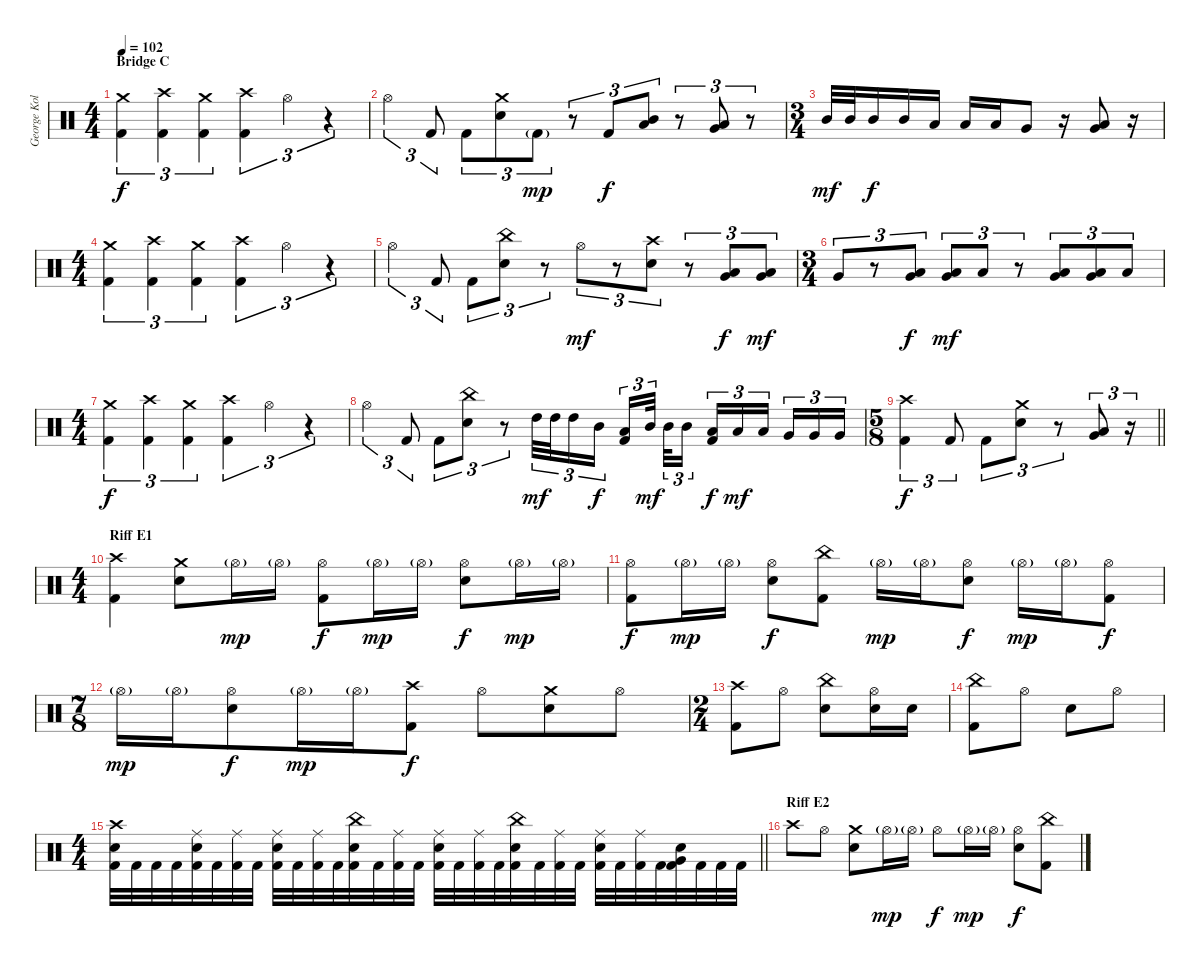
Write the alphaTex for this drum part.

\track ("George Kollias" "George Kol") {instrument percussion}
\staff {score}
\articulation defaults
\ts (4 4)
\section ("" "Bridge C")
\tempo 102
\clef neutral
\ks c
("Crash medium (hit)" "Kick (hit) 2").4{tu (3 2) dy f} ("Crash high (hit)" "Kick (hit) 2").4{tu (3 2)} ("Crash medium (hit)" "Kick (hit) 2").4{tu (3 2)} ("Crash high (hit)" "Kick (hit) 2").4{tu (3 2)} "Hi-Hat (open)".4{tu (3 2)} r.4{tu (3 2)} |
"Hi-Hat (open)".4{tu (3 2)} "Kick (hit) 2".8{tu (3 2)} "Kick (hit) 2".8{tu (3 2)} ("Crash medium (hit)" "Electric Snare (hit)").8{tu (3 2)} "Kick (hit) 2"{g}.8{tu (3 2) dy mp} r.8{tu (3 2)} "Kick (hit) 2".8{tu (3 2) dy f} ("Mid Tom (hit)" "Low Tom (hit)").8{tu (3 2)} r.8{tu (3 2)} ("Low Tom (hit)" "Very Low Tom (hit)").8{tu (3 2)} r.8{tu (3 2)} |
\ts (3 4)
"Mid Tom (hit)".32{dy mf} "Mid Tom (hit)".32 "Mid Tom (hit)".16{dy f} "Mid Tom (hit)".16 "Low Tom (hit)".16 "Low Tom (hit)".16 "Low Tom (hit)".16 "Very Low Tom (hit)".8 r.16 ("Very Low Tom (hit)" "Low Floor Tom (hit)").8 r.16 |
\ts (4 4)
("Crash medium (hit)" "Kick (hit) 2").4{tu (3 2)} ("Crash high (hit)" "Kick (hit) 2").4{tu (3 2)} ("Crash medium (hit)" "Kick (hit) 2").4{tu (3 2)} ("Crash high (hit)" "Kick (hit) 2").4{tu (3 2)} "Hi-Hat (open)".4{tu (3 2)} r.4{tu (3 2)} |
"Hi-Hat (open)".4{tu (3 2)} "Kick (hit) 2".8{tu (3 2)} "Kick (hit) 2".8{tu (3 2)} ("China (hit)" "Electric Snare (hit)").8{tu (3 2)} r.8{tu (3 2)} "Hi-Hat (open)".8{tu (3 2) dy mf} r.8{tu (3 2)} ("Crash high (hit)" "Electric Snare (hit)").8{tu (3 2)} r.8{tu (3 2)} ("Low Tom (hit)" "Very Low Tom (hit)").8{tu (3 2) dy f} ("Low Tom (hit)" "Very Low Tom (hit)").8{tu (3 2) dy mf} |
\ts (3 4)
"Very Low Tom (hit)".8{tu (3 2)} r.8{tu (3 2)} ("Very Low Tom (hit)" "Low Floor Tom (hit)").8{tu (3 2) dy f} ("Very Low Tom (hit)" "Low Floor Tom (hit)").8{tu (3 2) dy mf} "Low Floor Tom (hit)".8{tu (3 2)} r.8{tu (3 2)} ("Very Low Tom (hit)" "Low Floor Tom (hit)").8{tu (3 2)} ("Very Low Tom (hit)" "Low Floor Tom (hit)").8{tu (3 2)} "Low Floor Tom (hit)".8{tu (3 2)} |
\ts (4 4)
("Crash medium (hit)" "Kick (hit) 2").4{tu (3 2) dy f} ("Crash high (hit)" "Kick (hit) 2").4{tu (3 2)} ("Crash medium (hit)" "Kick (hit) 2").4{tu (3 2)} ("Crash high (hit)" "Kick (hit) 2").4{tu (3 2)} "Hi-Hat (open)".4{tu (3 2)} r.4{tu (3 2)} |
"Hi-Hat (open)".4{tu (3 2)} "Kick (hit) 2".8{tu (3 2)} "Kick (hit) 2".8{tu (3 2)} ("China (hit)" "Electric Snare (hit)").8{tu (3 2)} r.8{tu (3 2)} "High Tom (hit)".32{tu (3 2) dy mf} "High Tom (hit)".32{tu (3 2)} "High Tom (hit)".16{tu (3 2)} "Mid Tom (hit)".16{tu (3 2) dy f beam splitsecondary} ("Low Tom (hit)" "Kick (hit) 2").16{tu (3 2)} "Mid Tom (hit)".32{tu (3 2) dy mf beam splitsecondary} "Mid Tom (hit)".32{tu (3 2)} "Mid Tom (hit)".16{tu (3 2)} ("Low Tom (hit)" "Kick (hit) 2").16{tu (3 2) dy f} "Low Tom (hit)".16{tu (3 2) dy mf} "Low Tom (hit)".16{tu (3 2) beam splitsecondary} "Very Low Tom (hit)".16{tu (3 2)} "Very Low Tom (hit)".16{tu (3 2)} "Very Low Tom (hit)".16{tu (3 2)} |
\ts (5 8)
\barLineRight lightlight
("Crash high (hit)" "Kick (hit) 2").4{tu (3 2) dy f} "Kick (hit) 2".8{tu (3 2)} "Kick (hit) 2".8{tu (3 2)} ("Crash medium (hit)" "Electric Snare (hit)").8{tu (3 2)} r.8{tu (3 2)} ("Very Low Tom (hit)" "Low Floor Tom (hit)").8{tu (3 2)} r.16{tu (3 2)} |
\ts (4 4)
\section ("" "Riff E1")
("Crash high (hit)" "Kick (hit) 2").4 ("Crash medium (hit)" "Electric Snare (hit)").8 "Hi-Hat (open)"{g}.16{dy mp} "Hi-Hat (open)"{g}.16 ("Hi-Hat (open)" "Kick (hit) 2").8{dy f} "Hi-Hat (open)"{g}.16{dy mp} "Hi-Hat (open)"{g}.16 ("Hi-Hat (open)" "Electric Snare (hit)").8{dy f} "Hi-Hat (open)"{g}.16{dy mp} "Hi-Hat (open)"{g}.16 |
("Hi-Hat (open)" "Kick (hit) 2").8{dy f} "Hi-Hat (open)"{g}.16{dy mp} "Hi-Hat (open)"{g}.16 ("Hi-Hat (open)" "Electric Snare (hit)").8{dy f} ("China (hit)" "Kick (hit) 2").8 "Hi-Hat (open)"{g}.16{dy mp} "Hi-Hat (open)"{g}.16 ("Hi-Hat (open)" "Electric Snare (hit)").8{dy f} "Hi-Hat (open)"{g}.16{dy mp} "Hi-Hat (open)"{g}.16 ("Hi-Hat (open)" "Kick (hit) 2").8{dy f} |
\ts (7 8)
"Hi-Hat (open)"{g}.16{dy mp} "Hi-Hat (open)"{g}.16 ("Hi-Hat (open)" "Electric Snare (hit)").8{dy f} "Hi-Hat (open)"{g}.16{dy mp} "Hi-Hat (open)"{g}.16 ("Crash high (hit)" "Kick (hit) 2").8{dy f} "Hi-Hat (open)".8 ("Crash medium (hit)" "Electric Snare (hit)").8 "Hi-Hat (open)".8 |
\ts (2 4)
("Crash high (hit)" "Kick (hit) 2").8 "Hi-Hat (open)".8 ("China (hit)" "Electric Snare (hit)").8 ("Hi-Hat (open)" "Electric Snare (hit)").16 "Electric Snare (hit)".16 |
("China (hit)" "Kick (hit) 2").8 "Hi-Hat (open)".8 "Electric Snare (hit)".8 "Hi-Hat (open)".8 |
\ts (4 4)
\barLineRight lightlight
("Crash high (hit)" "Electric Snare (hit)" "Kick (hit) 2").32 "Kick (hit) 2".32 "Kick (hit) 2".32 "Kick (hit) 2".32 ("Ride (middle)" "Electric Snare (hit)" "Kick (hit) 2").32 "Kick (hit) 2".32 ("Ride (middle)" "Kick (hit) 2").32 "Kick (hit) 2".32 ("Ride (middle)" "Electric Snare (hit)" "Kick (hit) 2").32 "Kick (hit) 2".32 ("Ride (middle)" "Kick (hit) 2").32 "Kick (hit) 2".32 ("China (hit)" "Electric Snare (hit)" "Kick (hit) 2").32 "Kick (hit) 2".32 ("Ride (middle)" "Kick (hit) 2").32 "Kick (hit) 2".32 ("Ride (middle)" "Electric Snare (hit)" "Kick (hit) 2").32 "Kick (hit) 2".32 ("Ride (middle)" "Kick (hit) 2").32 "Kick (hit) 2".32 ("China (hit)" "Electric Snare (hit)" "Kick (hit) 2").32 "Kick (hit) 2".32 ("Ride (middle)" "Kick (hit) 2").32 "Kick (hit) 2".32 ("Ride (middle)" "Electric Snare (hit)" "Kick (hit) 2").32 "Kick (hit) 2".32 ("Ride (middle)" "Kick (hit) 2").32 "Kick (hit) 2".32 ("Very Low Tom (hit)" "Electric Snare (hit)" "Kick (hit) 2").32 "Kick (hit) 2".32 "Kick (hit) 2".32 "Kick (hit) 2".32 |
\section ("" "Riff E2")
"Crash high (hit)".8 "Hi-Hat (open)".8 ("Crash medium (hit)" "Electric Snare (hit)").8 "Hi-Hat (open)"{g}.16{dy mp} "Hi-Hat (open)"{g}.16 "Hi-Hat (open)".8{dy f} "Hi-Hat (open)"{g}.16{dy mp} "Hi-Hat (open)"{g}.16 ("Hi-Hat (open)" "Electric Snare (hit)").8{dy f} ("China (hit)" "Kick (hit) 2").8
